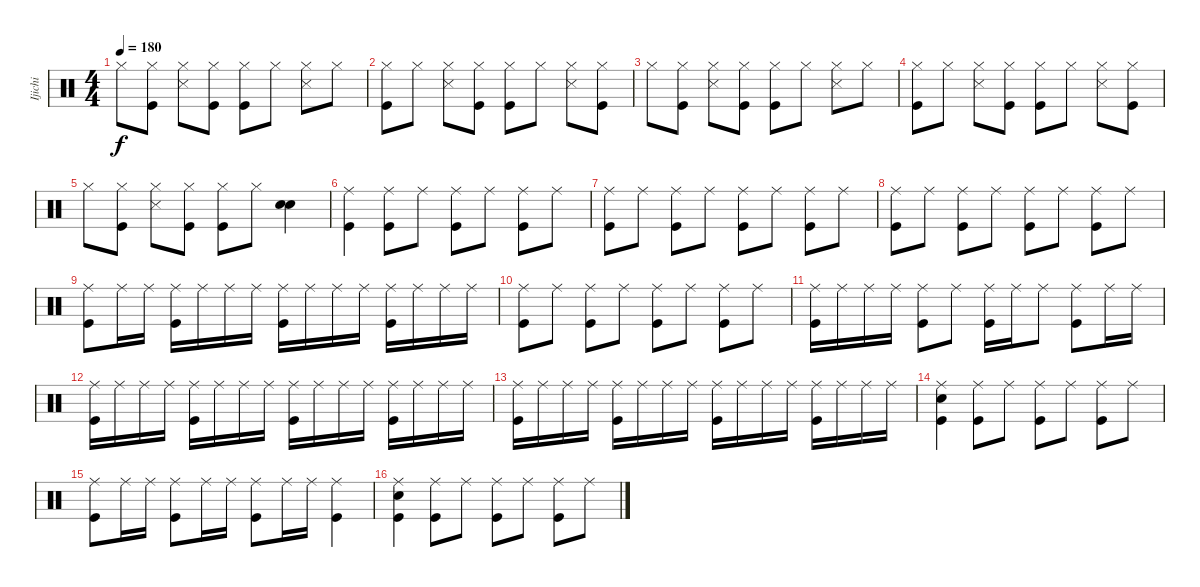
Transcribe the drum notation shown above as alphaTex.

\track ("Ijichi" "Ijichi") {instrument percussion}
\staff {score}
\articulation defaults
\ts (4 4)
\tempo 180
\clef neutral
\ks c "Hi-Hat (closed)".8{dy f}
("Hi-Hat (closed)" "Kick (hit)").8 ("Hi-Hat (closed)" "Snare (side stick) 3").8 ("Hi-Hat (closed)" "Kick (hit)").8 ("Hi-Hat (closed)" "Kick (hit)").8 "Hi-Hat (closed)".8 ("Hi-Hat (closed)" "Snare (side stick) 3").8 "Hi-Hat (closed)".8 |
("Hi-Hat (closed)" "Kick (hit)").8 "Hi-Hat (closed)".8 ("Hi-Hat (closed)" "Snare (side stick) 3").8 ("Hi-Hat (closed)" "Kick (hit)").8 ("Hi-Hat (closed)" "Kick (hit)").8 "Hi-Hat (closed)".8 ("Hi-Hat (closed)" "Snare (side stick) 3").8 ("Hi-Hat (closed)" "Kick (hit)").8 |
"Hi-Hat (closed)".8 ("Hi-Hat (closed)" "Kick (hit)").8 ("Hi-Hat (closed)" "Snare (side stick) 3").8 ("Hi-Hat (closed)" "Kick (hit)").8 ("Hi-Hat (closed)" "Kick (hit)").8 "Hi-Hat (closed)".8 ("Hi-Hat (closed)" "Snare (side stick) 3").8 "Hi-Hat (closed)".8 |
("Hi-Hat (closed)" "Kick (hit)").8 "Hi-Hat (closed)".8 ("Hi-Hat (closed)" "Snare (side stick) 3").8 ("Hi-Hat (closed)" "Kick (hit)").8 ("Hi-Hat (closed)" "Kick (hit)").8 "Hi-Hat (closed)".8 ("Hi-Hat (closed)" "Snare (side stick) 3").8 ("Hi-Hat (closed)" "Kick (hit)").8 |
"Hi-Hat (closed)".8 ("Hi-Hat (closed)" "Kick (hit)").8 ("Hi-Hat (closed)" "Snare (side stick) 3").8 ("Hi-Hat (closed)" "Kick (hit)").8 ("Hi-Hat (closed)" "Kick (hit)").8 "Hi-Hat (closed)".8 ("Snare (hit) 2" "Snare (hit) 2").4 |
("Ride (middle)" "Kick (hit)").4 ("Ride (middle)" "Kick (hit)").8 "Ride (middle)".8 ("Ride (middle)" "Kick (hit)").8 "Ride (middle)".8 ("Ride (middle)" "Kick (hit)").8 "Ride (middle)".8 |
("Ride (middle)" "Kick (hit)").8 "Ride (middle)".8 ("Ride (middle)" "Kick (hit)").8 "Ride (middle)".8 ("Ride (middle)" "Kick (hit)").8 "Ride (middle)".8 ("Ride (middle)" "Kick (hit)").8 "Ride (middle)".8 |
("Ride (middle)" "Kick (hit)").8 "Ride (middle)".8 ("Ride (middle)" "Kick (hit)").8 "Ride (middle)".8 ("Ride (middle)" "Kick (hit)").8 "Ride (middle)".8 ("Ride (middle)" "Kick (hit)").8 "Ride (middle)".8 |
("Ride (middle)" "Kick (hit)").8 "Ride (middle)".16 "Ride (middle)".16 ("Ride (middle)" "Kick (hit)").16 "Ride (middle)".16 "Ride (middle)".16 "Ride (middle)".16 ("Ride (middle)" "Kick (hit)").16 "Ride (middle)".16 "Ride (middle)".16 "Ride (middle)".16 ("Ride (middle)" "Kick (hit)").16 "Ride (middle)".16 "Ride (middle)".16 "Ride (middle)".16 |
("Ride (middle)" "Kick (hit)").8 "Ride (middle)".8 ("Ride (middle)" "Kick (hit)").8 "Ride (middle)".8 ("Ride (middle)" "Kick (hit)").8 "Ride (middle)".8 ("Ride (middle)" "Kick (hit)").8 "Ride (middle)".8 |
("Ride (middle)" "Kick (hit)").16 "Ride (middle)".16 "Ride (middle)".16 "Ride (middle)".16 ("Ride (middle)" "Kick (hit)").8 "Ride (middle)".8 ("Ride (middle)" "Kick (hit)").16 "Ride (middle)".16 "Ride (middle)".8 ("Ride (middle)" "Kick (hit)").8 "Ride (middle)".16 "Ride (middle)".16 |
("Ride (middle)" "Kick (hit)").16 "Ride (middle)".16 "Ride (middle)".16 "Ride (middle)".16 ("Ride (middle)" "Kick (hit)").16 "Ride (middle)".16 "Ride (middle)".16 "Ride (middle)".16 ("Ride (middle)" "Kick (hit)").16 "Ride (middle)".16 "Ride (middle)".16 "Ride (middle)".16 ("Ride (middle)" "Kick (hit)").16 "Ride (middle)".16 "Ride (middle)".16 "Ride (middle)".16 |
("Ride (middle)" "Kick (hit)").16 "Ride (middle)".16 "Ride (middle)".16 "Ride (middle)".16 ("Ride (middle)" "Kick (hit)").16 "Ride (middle)".16 "Ride (middle)".16 "Ride (middle)".16 ("Ride (middle)" "Kick (hit)").16 "Ride (middle)".16 "Ride (middle)".16 "Ride (middle)".16 ("Ride (middle)" "Kick (hit)").16 "Ride (middle)".16 "Ride (middle)".16 "Ride (middle)".16 |
("Ride (middle)" "Snare (hit) 2" "Kick (hit)").4 ("Ride (middle)" "Kick (hit)").8 "Ride (middle)".8 ("Ride (middle)" "Kick (hit)").8 "Ride (middle)".8 ("Ride (middle)" "Kick (hit)").8 "Ride (middle)".8 |
("Ride (middle)" "Kick (hit)").8 "Ride (middle)".16 "Ride (middle)".16 ("Ride (middle)" "Kick (hit)").8 "Ride (middle)".16 "Ride (middle)".16 ("Ride (middle)" "Kick (hit)").8 "Ride (middle)".16 "Ride (middle)".16 ("Ride (middle)" "Kick (hit)").4 |
("Ride (middle)" "Snare (hit) 2" "Kick (hit)").4 ("Ride (middle)" "Kick (hit)").8 "Ride (middle)".8 ("Ride (middle)" "Kick (hit)").8 "Ride (middle)".8 ("Ride (middle)" "Kick (hit)").8 "Ride (middle)".8
